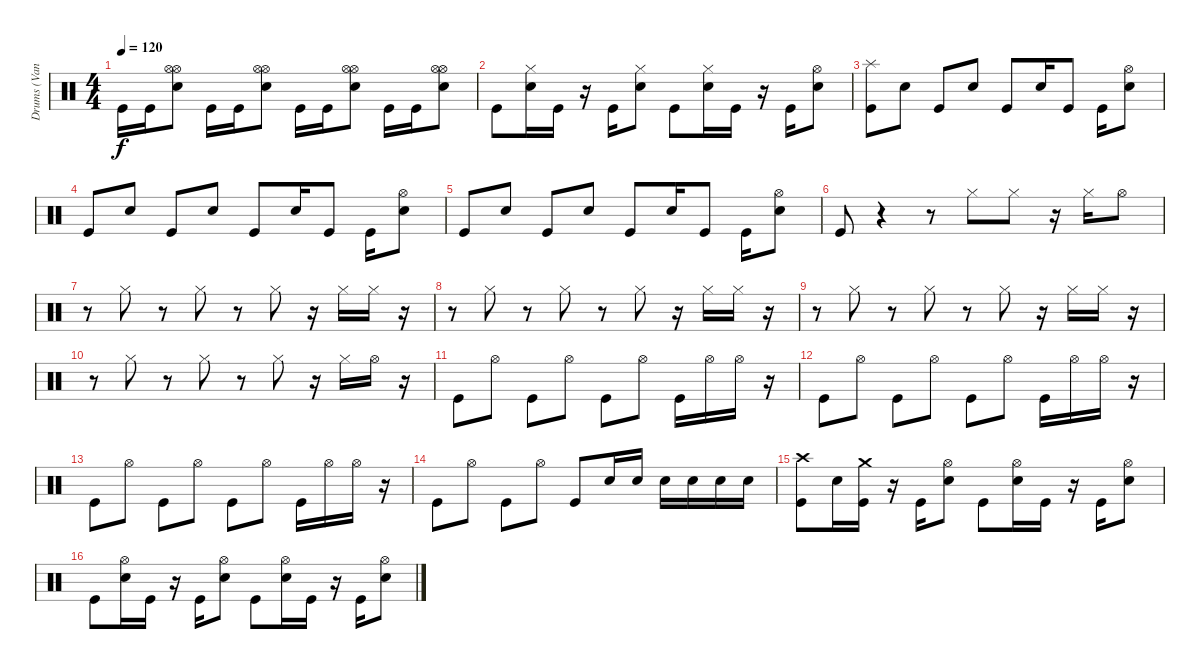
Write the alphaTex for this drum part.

\track ("Drums (Vandel)" "Drums (Van") {instrument percussion}
\staff {score}
\articulation defaults
\ts (4 4)
\tempo 120
\clef neutral
\ks c "Kick (hit)".16{dy f} "Kick (hit)".16
("Hi-Hat (open)" "Hi-Hat (open)" "Snare (hit) 2").8 "Kick (hit)".16 "Kick (hit)".16 ("Hi-Hat (open)" "Hi-Hat (open)" "Snare (hit) 2").8 "Kick (hit)".16 "Kick (hit)".16 ("Hi-Hat (open)" "Hi-Hat (open)" "Snare (hit) 2").8 "Kick (hit)".16 "Kick (hit)".16 ("Hi-Hat (open)" "Hi-Hat (open)" "Snare (hit) 2").8 |
"Kick (hit)".8 ("Hi-Hat (closed)" "Snare (hit) 2").16 "Kick (hit)".16 r.16 "Kick (hit)".16 ("Hi-Hat (closed)" "Snare (hit) 2").8 "Kick (hit)".8 ("Hi-Hat (closed)" "Snare (hit) 2").16 "Kick (hit)".16 r.16 "Kick (hit)".16 ("Hi-Hat (open)" "Snare (hit) 2").8 |
("Splash (hit)" "Kick (hit)").8 "Snare (hit) 2".8 "Kick (hit)".8 "Snare (hit) 2".8 "Kick (hit)".8 "Snare (hit) 2".16 "Kick (hit)".8 "Kick (hit)".16 ("Hi-Hat (open)" "Snare (hit) 2").8 |
"Kick (hit)".8 "Snare (hit) 2".8 "Kick (hit)".8 "Snare (hit) 2".8 "Kick (hit)".8 "Snare (hit) 2".16 "Kick (hit)".8 "Kick (hit)".16 ("Hi-Hat (open)" "Snare (hit) 2").8 |
"Kick (hit)".8 "Snare (hit) 2".8 "Kick (hit)".8 "Snare (hit) 2".8 "Kick (hit)".8 "Snare (hit) 2".16 "Kick (hit)".8 "Kick (hit)".16 ("Hi-Hat (open)" "Snare (hit) 2").8 |
"Kick (hit)".8 r.4 r.8 "Hi-Hat (closed)".8 "Hi-Hat (closed)".8 r.16 "Hi-Hat (closed)".16 "Hi-Hat (open)".8 |
r.8 "Hi-Hat (closed)".8 r.8 "Hi-Hat (closed)".8 r.8 "Hi-Hat (closed)".8 r.16 "Hi-Hat (closed)".16 "Hi-Hat (closed)".16 r.16 |
r.8 "Hi-Hat (closed)".8 r.8 "Hi-Hat (closed)".8 r.8 "Hi-Hat (closed)".8 r.16 "Hi-Hat (closed)".16 "Hi-Hat (closed)".16 r.16 |
r.8 "Hi-Hat (closed)".8 r.8 "Hi-Hat (closed)".8 r.8 "Hi-Hat (closed)".8 r.16 "Hi-Hat (closed)".16 "Hi-Hat (closed)".16 r.16 |
r.8 "Hi-Hat (closed)".8 r.8 "Hi-Hat (closed)".8 r.8 "Hi-Hat (closed)".8 r.16 "Hi-Hat (closed)".16 "Hi-Hat (open)".16 r.16 |
"Kick (hit)".8 "Hi-Hat (open)".8 "Kick (hit)".8 "Hi-Hat (open)".8 "Kick (hit)".8 "Hi-Hat (open)".8 "Kick (hit)".16 "Hi-Hat (open)".16 "Hi-Hat (open)".16 r.16 |
"Kick (hit)".8 "Hi-Hat (open)".8 "Kick (hit)".8 "Hi-Hat (open)".8 "Kick (hit)".8 "Hi-Hat (open)".8 "Kick (hit)".16 "Hi-Hat (open)".16 "Hi-Hat (open)".16 r.16 |
"Kick (hit)".8 "Hi-Hat (open)".8 "Kick (hit)".8 "Hi-Hat (open)".8 "Kick (hit)".8 "Hi-Hat (open)".8 "Kick (hit)".16 "Hi-Hat (open)".16 "Hi-Hat (open)".16 r.16 |
"Kick (hit)".8 "Hi-Hat (open)".8 "Kick (hit)".8 "Hi-Hat (open)".8 "Kick (hit)".8 "Snare (hit) 2".16 "Snare (hit) 2".16 "Snare (hit) 2".16 "Snare (hit) 2".16 "Snare (hit) 2".16 "Snare (hit) 2".16 |
("Crash high (hit)" "Kick (hit)").8 "Snare (hit) 2".16 ("Crash medium (hit)" "Kick (hit)").16 r.16 "Kick (hit)".16 ("Hi-Hat (open)" "Snare (hit) 2").8 "Kick (hit)".8 ("Hi-Hat (open)" "Snare (hit) 2").16 "Kick (hit)".16 r.16 "Kick (hit)".16 ("Hi-Hat (open)" "Snare (hit) 2").8 |
"Kick (hit)".8 ("Hi-Hat (open)" "Snare (hit) 2").16 "Kick (hit)".16 r.16 "Kick (hit)".16 ("Hi-Hat (open)" "Snare (hit) 2").8 "Kick (hit)".8 ("Hi-Hat (open)" "Snare (hit) 2").16 "Kick (hit)".16 r.16 "Kick (hit)".16 ("Hi-Hat (open)" "Snare (hit) 2").8
